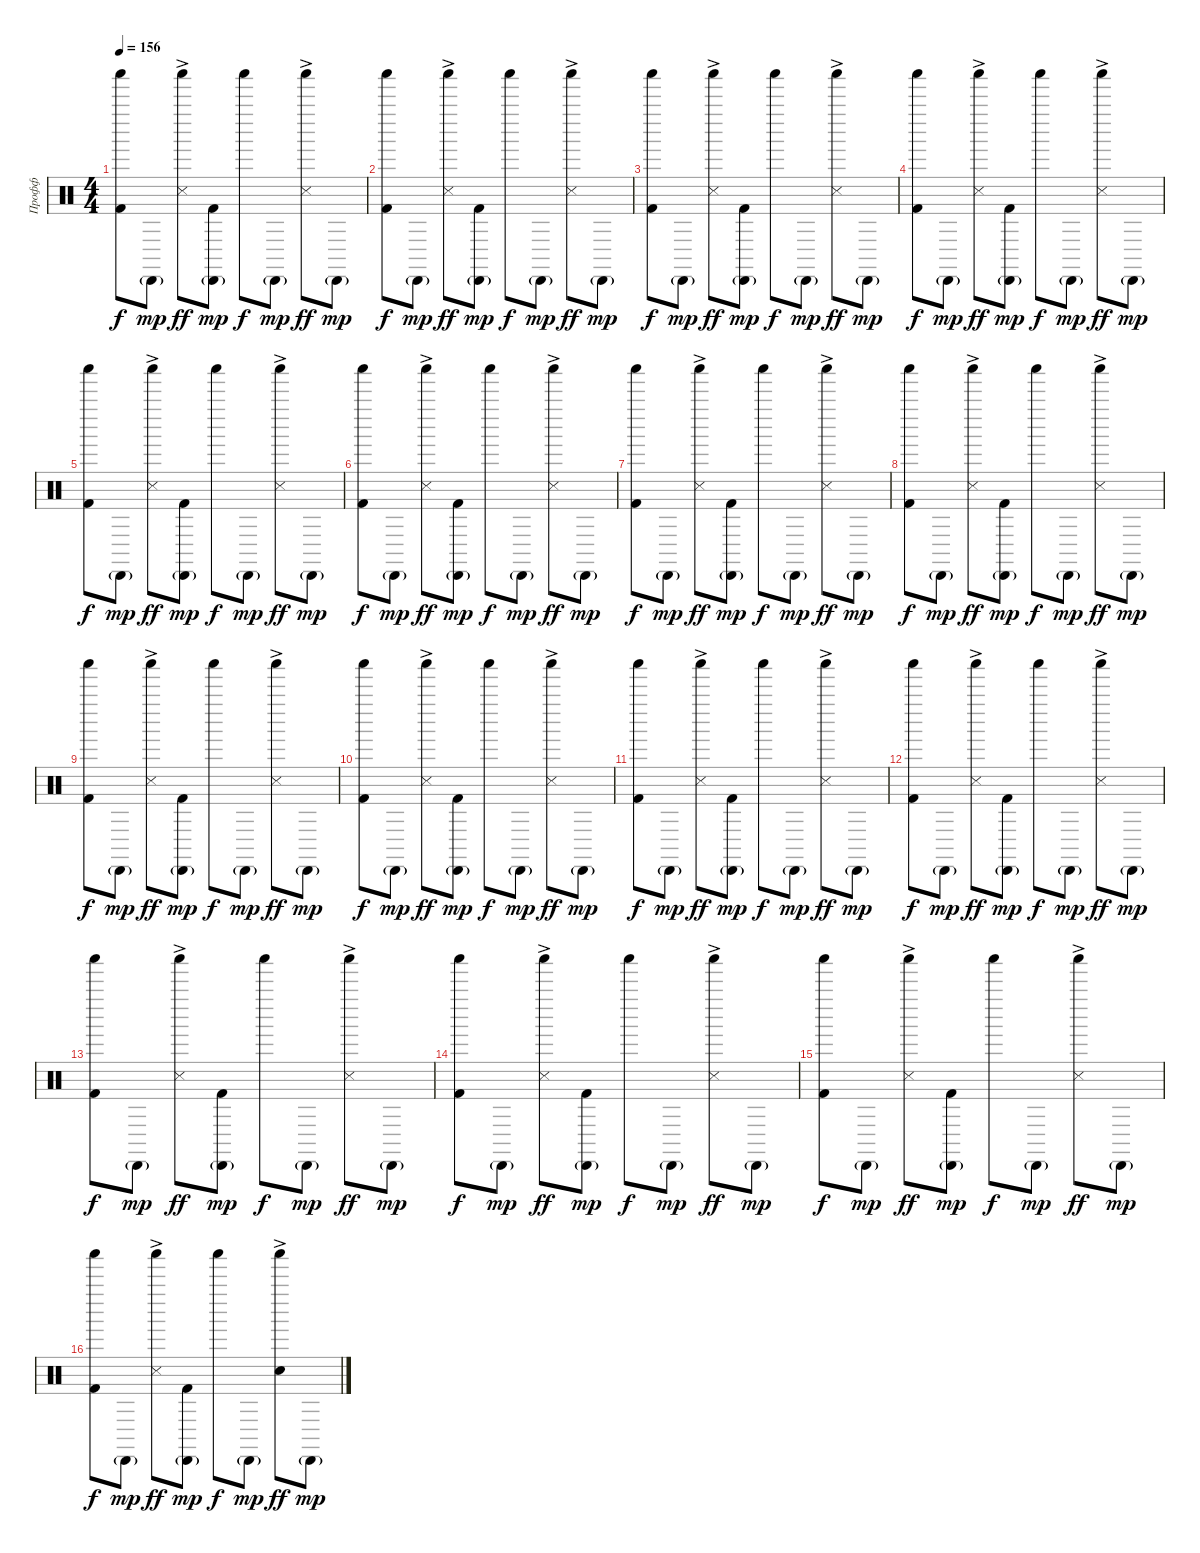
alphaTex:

\track ("Профф" "Профф") {instrument percussion}
\staff {score}
\articulation defaults
\ts (4 4)
\tempo 156
\clef neutral
\ks c
("Shaker (hit)" "Kick (hit) 2").8{dy f} "Cabasa (hit)"{g}.8{dy mp} ("Shaker (hit)"{ac} "Snare (side stick) 3").8{dy ff} ("Cabasa (hit)"{g} "Kick (hit) 2").8{dy mp} "Shaker (hit)".8{dy f} "Cabasa (hit)"{g}.8{dy mp} ("Shaker (hit)"{ac} "Snare (side stick) 3").8{dy ff} "Cabasa (hit)"{g}.8{dy mp} |
("Shaker (hit)" "Kick (hit) 2").8{dy f} "Cabasa (hit)"{g}.8{dy mp} ("Shaker (hit)"{ac} "Snare (side stick) 3").8{dy ff} ("Cabasa (hit)"{g} "Kick (hit) 2").8{dy mp} "Shaker (hit)".8{dy f} "Cabasa (hit)"{g}.8{dy mp} ("Shaker (hit)"{ac} "Snare (side stick) 3").8{dy ff} "Cabasa (hit)"{g}.8{dy mp} |
("Shaker (hit)" "Kick (hit) 2").8{dy f} "Cabasa (hit)"{g}.8{dy mp} ("Shaker (hit)"{ac} "Snare (side stick) 3").8{dy ff} ("Cabasa (hit)"{g} "Kick (hit) 2").8{dy mp} "Shaker (hit)".8{dy f} "Cabasa (hit)"{g}.8{dy mp} ("Shaker (hit)"{ac} "Snare (side stick) 3").8{dy ff} "Cabasa (hit)"{g}.8{dy mp} |
("Shaker (hit)" "Kick (hit) 2").8{dy f} "Cabasa (hit)"{g}.8{dy mp} ("Shaker (hit)"{ac} "Snare (side stick) 3").8{dy ff} ("Cabasa (hit)"{g} "Kick (hit) 2").8{dy mp} "Shaker (hit)".8{dy f} "Cabasa (hit)"{g}.8{dy mp} ("Shaker (hit)"{ac} "Snare (side stick) 3").8{dy ff} "Cabasa (hit)"{g}.8{dy mp} |
("Shaker (hit)" "Kick (hit) 2").8{dy f} "Cabasa (hit)"{g}.8{dy mp} ("Shaker (hit)"{ac} "Snare (side stick) 3").8{dy ff} ("Cabasa (hit)"{g} "Kick (hit) 2").8{dy mp} "Shaker (hit)".8{dy f} "Cabasa (hit)"{g}.8{dy mp} ("Shaker (hit)"{ac} "Snare (side stick) 3").8{dy ff} "Cabasa (hit)"{g}.8{dy mp} |
("Shaker (hit)" "Kick (hit) 2").8{dy f} "Cabasa (hit)"{g}.8{dy mp} ("Shaker (hit)"{ac} "Snare (side stick) 3").8{dy ff} ("Cabasa (hit)"{g} "Kick (hit) 2").8{dy mp} "Shaker (hit)".8{dy f} "Cabasa (hit)"{g}.8{dy mp} ("Shaker (hit)"{ac} "Snare (side stick) 3").8{dy ff} "Cabasa (hit)"{g}.8{dy mp} |
("Shaker (hit)" "Kick (hit) 2").8{dy f} "Cabasa (hit)"{g}.8{dy mp} ("Shaker (hit)"{ac} "Snare (side stick) 3").8{dy ff} ("Cabasa (hit)"{g} "Kick (hit) 2").8{dy mp} "Shaker (hit)".8{dy f} "Cabasa (hit)"{g}.8{dy mp} ("Shaker (hit)"{ac} "Snare (side stick) 3").8{dy ff} "Cabasa (hit)"{g}.8{dy mp} |
("Shaker (hit)" "Kick (hit) 2").8{dy f} "Cabasa (hit)"{g}.8{dy mp} ("Shaker (hit)"{ac} "Snare (side stick) 3").8{dy ff} ("Cabasa (hit)"{g} "Kick (hit) 2").8{dy mp} "Shaker (hit)".8{dy f} "Cabasa (hit)"{g}.8{dy mp} ("Shaker (hit)"{ac} "Snare (side stick) 3").8{dy ff} "Cabasa (hit)"{g}.8{dy mp} |
("Shaker (hit)" "Kick (hit) 2").8{dy f} "Cabasa (hit)"{g}.8{dy mp} ("Shaker (hit)"{ac} "Snare (side stick) 3").8{dy ff} ("Cabasa (hit)"{g} "Kick (hit) 2").8{dy mp} "Shaker (hit)".8{dy f} "Cabasa (hit)"{g}.8{dy mp} ("Shaker (hit)"{ac} "Snare (side stick) 3").8{dy ff} "Cabasa (hit)"{g}.8{dy mp} |
("Shaker (hit)" "Kick (hit) 2").8{dy f} "Cabasa (hit)"{g}.8{dy mp} ("Shaker (hit)"{ac} "Snare (side stick) 3").8{dy ff} ("Cabasa (hit)"{g} "Kick (hit) 2").8{dy mp} "Shaker (hit)".8{dy f} "Cabasa (hit)"{g}.8{dy mp} ("Shaker (hit)"{ac} "Snare (side stick) 3").8{dy ff} "Cabasa (hit)"{g}.8{dy mp} |
("Shaker (hit)" "Kick (hit) 2").8{dy f} "Cabasa (hit)"{g}.8{dy mp} ("Shaker (hit)"{ac} "Snare (side stick) 3").8{dy ff} ("Cabasa (hit)"{g} "Kick (hit) 2").8{dy mp} "Shaker (hit)".8{dy f} "Cabasa (hit)"{g}.8{dy mp} ("Shaker (hit)"{ac} "Snare (side stick) 3").8{dy ff} "Cabasa (hit)"{g}.8{dy mp} |
("Shaker (hit)" "Kick (hit) 2").8{dy f} "Cabasa (hit)"{g}.8{dy mp} ("Shaker (hit)"{ac} "Snare (side stick) 3").8{dy ff} ("Cabasa (hit)"{g} "Kick (hit) 2").8{dy mp} "Shaker (hit)".8{dy f} "Cabasa (hit)"{g}.8{dy mp} ("Shaker (hit)"{ac} "Snare (side stick) 3").8{dy ff} "Cabasa (hit)"{g}.8{dy mp} |
("Shaker (hit)" "Kick (hit) 2").8{dy f} "Cabasa (hit)"{g}.8{dy mp} ("Shaker (hit)"{ac} "Snare (side stick) 3").8{dy ff} ("Cabasa (hit)"{g} "Kick (hit) 2").8{dy mp} "Shaker (hit)".8{dy f} "Cabasa (hit)"{g}.8{dy mp} ("Shaker (hit)"{ac} "Snare (side stick) 3").8{dy ff} "Cabasa (hit)"{g}.8{dy mp} |
("Shaker (hit)" "Kick (hit) 2").8{dy f} "Cabasa (hit)"{g}.8{dy mp} ("Shaker (hit)"{ac} "Snare (side stick) 3").8{dy ff} ("Cabasa (hit)"{g} "Kick (hit) 2").8{dy mp} "Shaker (hit)".8{dy f} "Cabasa (hit)"{g}.8{dy mp} ("Shaker (hit)"{ac} "Snare (side stick) 3").8{dy ff} "Cabasa (hit)"{g}.8{dy mp} |
("Shaker (hit)" "Kick (hit) 2").8{dy f} "Cabasa (hit)"{g}.8{dy mp} ("Shaker (hit)"{ac} "Snare (side stick) 3").8{dy ff} ("Cabasa (hit)"{g} "Kick (hit) 2").8{dy mp} "Shaker (hit)".8{dy f} "Cabasa (hit)"{g}.8{dy mp} ("Shaker (hit)"{ac} "Snare (side stick) 3").8{dy ff} "Cabasa (hit)"{g}.8{dy mp} |
("Shaker (hit)" "Kick (hit) 2").8{dy f} "Cabasa (hit)"{g}.8{dy mp} ("Shaker (hit)"{ac} "Snare (side stick) 3").8{dy ff} ("Cabasa (hit)"{g} "Kick (hit) 2").8{dy mp} "Shaker (hit)".8{dy f} "Cabasa (hit)"{g}.8{dy mp} ("Shaker (hit)"{ac} "Electric Snare (hit)"{ac}).8{dy ff} "Cabasa (hit)"{g}.8{dy mp}
